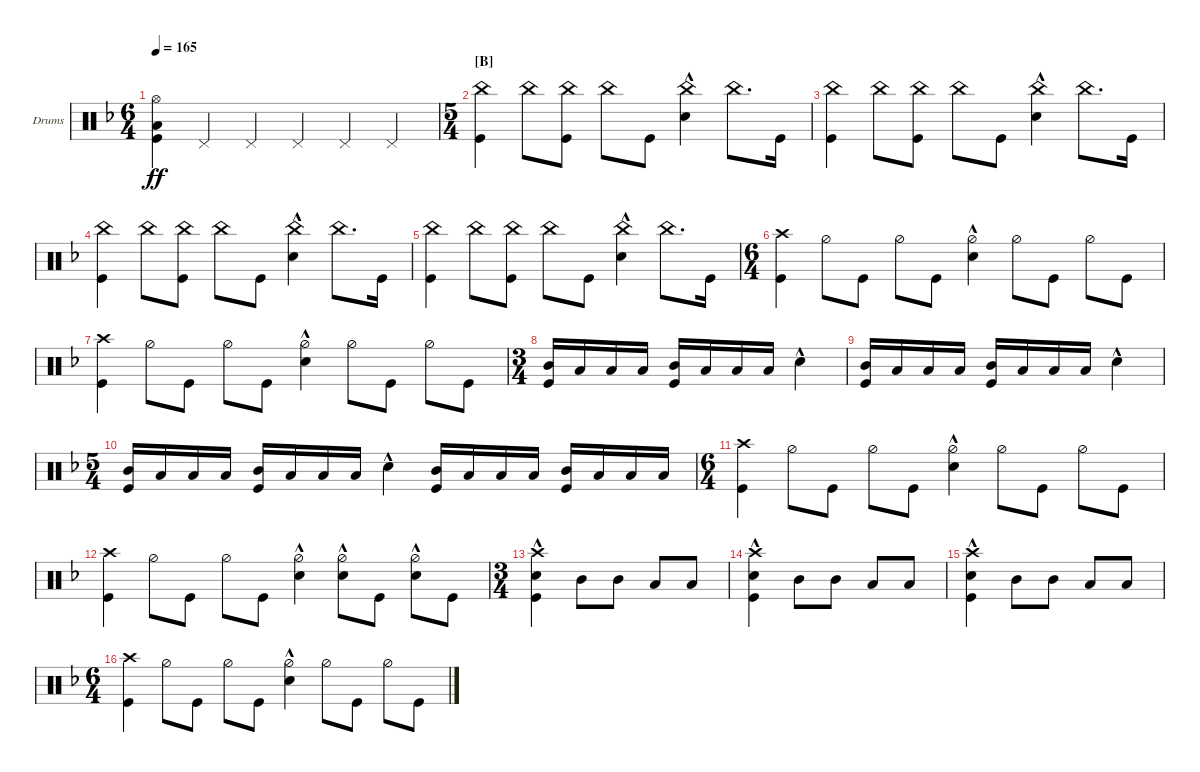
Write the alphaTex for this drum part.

\defaultSystemsLayout 4
\bracketExtendMode groupsimilarinstruments
\firstSystemTrackNameOrientation horizontal
\otherSystemsTrackNameOrientation horizontal
\track ("Drumkit" "Drums") {instrument percussion}
\staff {score}
\articulation defaults
\ts (6 4)
\tempo 165
\clef neutral
\ks f
("Kick (hit)" "Low Tom (hit)" "Hi-Hat (open)").4{dy ff} "Pedal Hi-Hat (hit)".4 "Pedal Hi-Hat (hit)".4 "Pedal Hi-Hat (hit)".4 "Pedal Hi-Hat (hit)".4 "Pedal Hi-Hat (hit)".4 |
\ts (5 4)
\section ("B" "")
("Kick (hit)" "China (hit)").4 "China (hit)".8 ("Kick (hit)" "China (hit)").8 "China (hit)".8 "Kick (hit)".8 ("Snare (hit) 2"{hac} "China (hit)").4 "China (hit)".8{d} "Kick (hit)".16 |
("Kick (hit)" "China (hit)").4 "China (hit)".8 ("Kick (hit)" "China (hit)").8 "China (hit)".8 "Kick (hit)".8 ("Snare (hit) 2"{hac} "China (hit)").4 "China (hit)".8{d} "Kick (hit)".16 |
("Kick (hit)" "China (hit)").4 "China (hit)".8 ("Kick (hit)" "China (hit)").8 "China (hit)".8 "Kick (hit)".8 ("Snare (hit) 2"{hac} "China (hit)").4 "China (hit)".8{d} "Kick (hit)".16 |
("Kick (hit)" "China (hit)").4 "China (hit)".8 ("Kick (hit)" "China (hit)").8 "China (hit)".8 "Kick (hit)".8 ("Snare (hit) 2"{hac} "China (hit)").4 "China (hit)".8{d} "Kick (hit)".16 |
\ts (6 4)
("Kick (hit)" "Crash high (hit)").4 "Hi-Hat (half)".8 "Kick (hit)".8 "Hi-Hat (half)".8 "Kick (hit)".8 ("Hi-Hat (half)" "Snare (hit) 2"{hac}).4 "Hi-Hat (half)".8 "Kick (hit)".8 "Hi-Hat (half)".8 "Kick (hit)".8 |
("Kick (hit)" "Crash high (hit)").4 "Hi-Hat (half)".8 "Kick (hit)".8 "Hi-Hat (half)".8 "Kick (hit)".8 ("Hi-Hat (half)" "Snare (hit) 2"{hac}).4 "Hi-Hat (half)".8 "Kick (hit)".8 "Hi-Hat (half)".8 "Kick (hit)".8 |
\ts (3 4)
("Kick (hit)" "Mid Tom (hit)").16 "Low Tom (hit)".16 "Low Tom (hit)".16 "Low Tom (hit)".16 ("Kick (hit)" "Mid Tom (hit)").16 "Low Tom (hit)".16 "Low Tom (hit)".16 "Low Tom (hit)".16 "Snare (hit) 2"{hac}.4 |
("Kick (hit)" "Mid Tom (hit)").16 "Low Tom (hit)".16 "Low Tom (hit)".16 "Low Tom (hit)".16 ("Kick (hit)" "Mid Tom (hit)").16 "Low Tom (hit)".16 "Low Tom (hit)".16 "Low Tom (hit)".16 "Snare (hit) 2"{hac}.4 |
\ts (5 4)
("Kick (hit)" "Mid Tom (hit)").16 "Low Tom (hit)".16 "Low Tom (hit)".16 "Low Tom (hit)".16 ("Kick (hit)" "Mid Tom (hit)").16 "Low Tom (hit)".16 "Low Tom (hit)".16 "Low Tom (hit)".16 "Snare (hit) 2"{hac}.4 ("Kick (hit)" "Mid Tom (hit)").16 "Low Tom (hit)".16 "Low Tom (hit)".16 "Low Tom (hit)".16 ("Kick (hit)" "Mid Tom (hit)").16 "Low Tom (hit)".16 "Low Tom (hit)".16 "Low Tom (hit)".16 |
\ts (6 4)
("Kick (hit)" "Crash high (hit)").4 "Hi-Hat (half)".8 "Kick (hit)".8 "Hi-Hat (half)".8 "Kick (hit)".8 ("Hi-Hat (half)" "Snare (hit) 2"{hac}).4 "Hi-Hat (half)".8 "Kick (hit)".8 "Hi-Hat (half)".8 "Kick (hit)".8 |
("Kick (hit)" "Crash high (hit)").4 "Hi-Hat (half)".8 "Kick (hit)".8 "Hi-Hat (half)".8 "Kick (hit)".8 ("Hi-Hat (half)" "Snare (hit) 2"{hac}).4 ("Hi-Hat (half)" "Snare (hit) 2"{hac}).8 "Kick (hit)".8 ("Hi-Hat (half)" "Snare (hit) 2"{hac}).8 "Kick (hit)".8 |
\ts (3 4)
("Kick (hit)" "Crash high (hit)" "Snare (hit) 2"{hac}).4 "Mid Tom (hit)".8 "Mid Tom (hit)".8 "Low Tom (hit)".8 "Low Tom (hit)".8 |
("Kick (hit)" "Crash high (hit)" "Snare (hit) 2"{hac}).4 "Mid Tom (hit)".8 "Mid Tom (hit)".8 "Low Tom (hit)".8 "Low Tom (hit)".8 |
("Kick (hit)" "Crash high (hit)" "Snare (hit) 2"{hac}).4 "Mid Tom (hit)".8 "Mid Tom (hit)".8 "Low Tom (hit)".8 "Low Tom (hit)".8 |
\ts (6 4)
("Kick (hit)" "Crash high (hit)").4 "Hi-Hat (half)".8 "Kick (hit)".8 "Hi-Hat (half)".8 "Kick (hit)".8 ("Hi-Hat (half)" "Snare (hit) 2"{hac}).4 "Hi-Hat (half)".8 "Kick (hit)".8 "Hi-Hat (half)".8 "Kick (hit)".8
